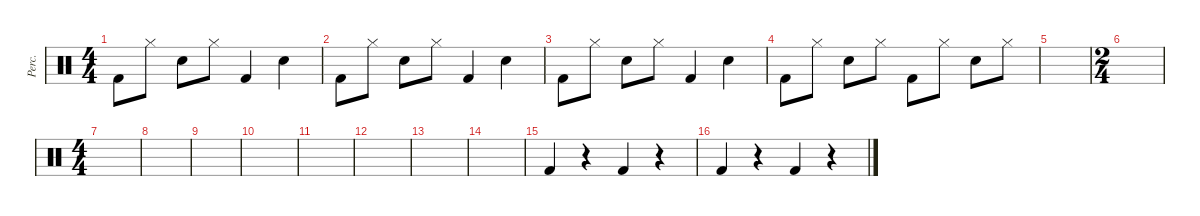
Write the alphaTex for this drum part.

\defaultSystemsLayout 4
\hideDynamics
\bracketExtendMode groupsimilarinstruments
\otherSystemsTrackNameOrientation horizontal
\track ("Percussions 1" "Perc.") {instrument percussion}
\staff {score}
\articulation defaults
\ts (4 4)
\tempo (120 hide)
\clef neutral
\ks c "Kick (hit) 2".8{dy mf beam Down} "Hi-Hat (closed)".8{beam Down} "Snare (hit) 2".8{beam Down} "Hi-Hat (closed)".8{beam Down} "Kick (hit) 2".4{beam Up} "Snare (hit) 2".4{beam Down}
|
"Kick (hit) 2".8{beam Down} "Hi-Hat (closed)".8{beam Down} "Snare (hit) 2".8{beam Down} "Hi-Hat (closed)".8{beam Down} "Kick (hit) 2".4{beam Up} "Snare (hit) 2".4{beam Down} |
"Kick (hit) 2".8{beam Down} "Hi-Hat (closed)".8{beam Down} "Snare (hit) 2".8{beam Down} "Hi-Hat (closed)".8{beam Down} "Kick (hit) 2".4{beam Up} "Snare (hit) 2".4{beam Down} |
"Kick (hit) 2".8{beam Down} "Hi-Hat (closed)".8{beam Down} "Snare (hit) 2".8{beam Down} "Hi-Hat (closed)".8{beam Down} "Kick (hit) 2".8{beam Down} "Hi-Hat (closed)".8{beam Down} "Snare (hit) 2".8{beam Down} "Hi-Hat (closed)".8{beam Down} |
|
\ts (2 4)
|
\ts (4 4)
|
|
|
|
|
|
|
|
"Kick (hit) 2".4{beam Up} r.4{beam Up} "Kick (hit) 2".4{beam Up} r.4{beam Up} |
"Kick (hit) 2".4{beam Up} r.4{beam Up} "Kick (hit) 2".4{beam Up} r.4{beam Up}
